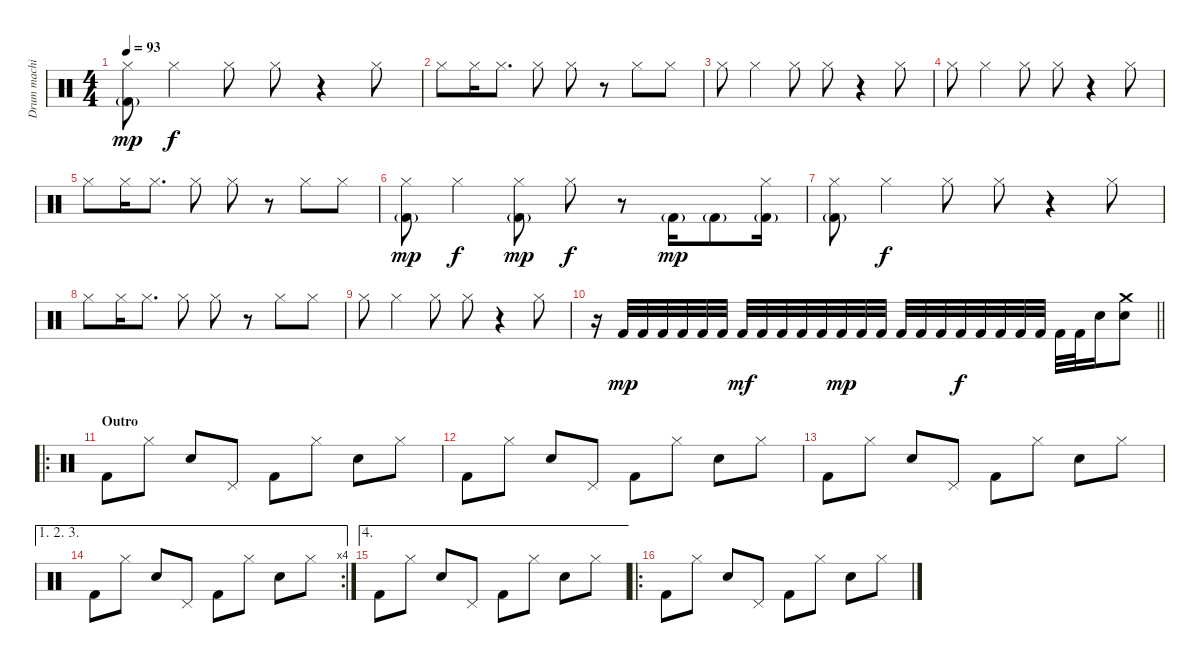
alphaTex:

\track ("Drum machine" "Drum machi") {instrument percussion}
\staff {score}
\articulation defaults
\ts (4 4)
\tempo 93
\clef neutral
\ks c
("Hi-Hat (closed)" "Kick (hit) 2"{g}).8{dy mp} "Hi-Hat (closed)".4{dy f} "Hi-Hat (closed)".8 "Hi-Hat (closed)".8 r.4 "Hi-Hat (closed)".8 |
"Hi-Hat (closed)".8 "Hi-Hat (closed)".16 "Hi-Hat (closed)".8{d} "Hi-Hat (closed)".8 "Hi-Hat (closed)".8 r.8 "Hi-Hat (closed)".8 "Hi-Hat (closed)".8 |
"Hi-Hat (closed)".8 "Hi-Hat (closed)".4 "Hi-Hat (closed)".8 "Hi-Hat (closed)".8 r.4 "Hi-Hat (closed)".8 |
"Hi-Hat (closed)".8 "Hi-Hat (closed)".4 "Hi-Hat (closed)".8 "Hi-Hat (closed)".8 r.4 "Hi-Hat (closed)".8 |
"Hi-Hat (closed)".8 "Hi-Hat (closed)".16 "Hi-Hat (closed)".8{d} "Hi-Hat (closed)".8 "Hi-Hat (closed)".8 r.8 "Hi-Hat (closed)".8 "Hi-Hat (closed)".8 |
("Hi-Hat (closed)" "Kick (hit) 2"{g}).8{dy mp} "Hi-Hat (closed)".4{dy f} ("Hi-Hat (closed)" "Kick (hit) 2"{g}).8{dy mp} "Hi-Hat (closed)".8{dy f} r.8 "Kick (hit) 2"{g}.16{dy mp} "Kick (hit) 2"{g}.8 ("Hi-Hat (closed)" "Kick (hit) 2"{g}).16 |
("Hi-Hat (closed)" "Kick (hit) 2"{g}).8 "Hi-Hat (closed)".4{dy f} "Hi-Hat (closed)".8 "Hi-Hat (closed)".8 r.4 "Hi-Hat (closed)".8 |
"Hi-Hat (closed)".8 "Hi-Hat (closed)".16 "Hi-Hat (closed)".8{d} "Hi-Hat (closed)".8 "Hi-Hat (closed)".8 r.8 "Hi-Hat (closed)".8 "Hi-Hat (closed)".8 |
"Hi-Hat (closed)".8 "Hi-Hat (closed)".4 "Hi-Hat (closed)".8 "Hi-Hat (closed)".8 r.4 "Hi-Hat (closed)".8 |
\barLineRight lightlight
r.16 "Kick (hit) 2".32{dy mp} "Kick (hit) 2".32 "Kick (hit) 2".32 "Kick (hit) 2".32 "Kick (hit) 2".32 "Kick (hit) 2".32 "Kick (hit) 2".32{dy mf} "Kick (hit) 2".32 "Kick (hit) 2".32 "Kick (hit) 2".32 "Kick (hit) 2".32 "Kick (hit) 2".32{dy mp} "Kick (hit) 2".32 "Kick (hit) 2".32 "Kick (hit) 2".32 "Kick (hit) 2".32 "Kick (hit) 2".32 "Kick (hit) 2".32{dy f} "Kick (hit) 2".32 "Kick (hit) 2".32 "Kick (hit) 2".32 "Kick (hit) 2".32 "Kick (hit) 2".32 "Kick (hit) 2".32 "Snare (hit) 2".16 ("Crash medium (hit)" "Snare (hit) 2").8 |
\ro
\section ("" "Outro")
"Kick (hit) 2".8 "Hi-Hat (closed)".8 "Snare (hit) 2".8 "Pedal Hi-Hat (hit)".8 "Kick (hit) 2".8 "Hi-Hat (closed)".8 "Snare (hit) 2".8 "Hi-Hat (closed)".8 |
"Kick (hit) 2".8 "Hi-Hat (closed)".8 "Snare (hit) 2".8 "Pedal Hi-Hat (hit)".8 "Kick (hit) 2".8 "Hi-Hat (closed)".8 "Snare (hit) 2".8 "Hi-Hat (closed)".8 |
"Kick (hit) 2".8 "Hi-Hat (closed)".8 "Snare (hit) 2".8 "Pedal Hi-Hat (hit)".8 "Kick (hit) 2".8 "Hi-Hat (closed)".8 "Snare (hit) 2".8 "Hi-Hat (closed)".8 |
\ae (1 2 3)
\rc 4 "Kick (hit) 2".8 "Hi-Hat (closed)".8 "Snare (hit) 2".8 "Pedal Hi-Hat (hit)".8 "Kick (hit) 2".8 "Hi-Hat (closed)".8 "Snare (hit) 2".8 "Hi-Hat (closed)".8
|
\ae 4 "Kick (hit) 2".8 "Hi-Hat (closed)".8 "Snare (hit) 2".8 "Pedal Hi-Hat (hit)".8 "Kick (hit) 2".8 "Hi-Hat (closed)".8 "Snare (hit) 2".8 "Hi-Hat (closed)".8
|
\ro "Kick (hit) 2".8 "Hi-Hat (closed)".8 "Snare (hit) 2".8 "Pedal Hi-Hat (hit)".8 "Kick (hit) 2".8 "Hi-Hat (closed)".8 "Snare (hit) 2".8 "Hi-Hat (closed)".8
